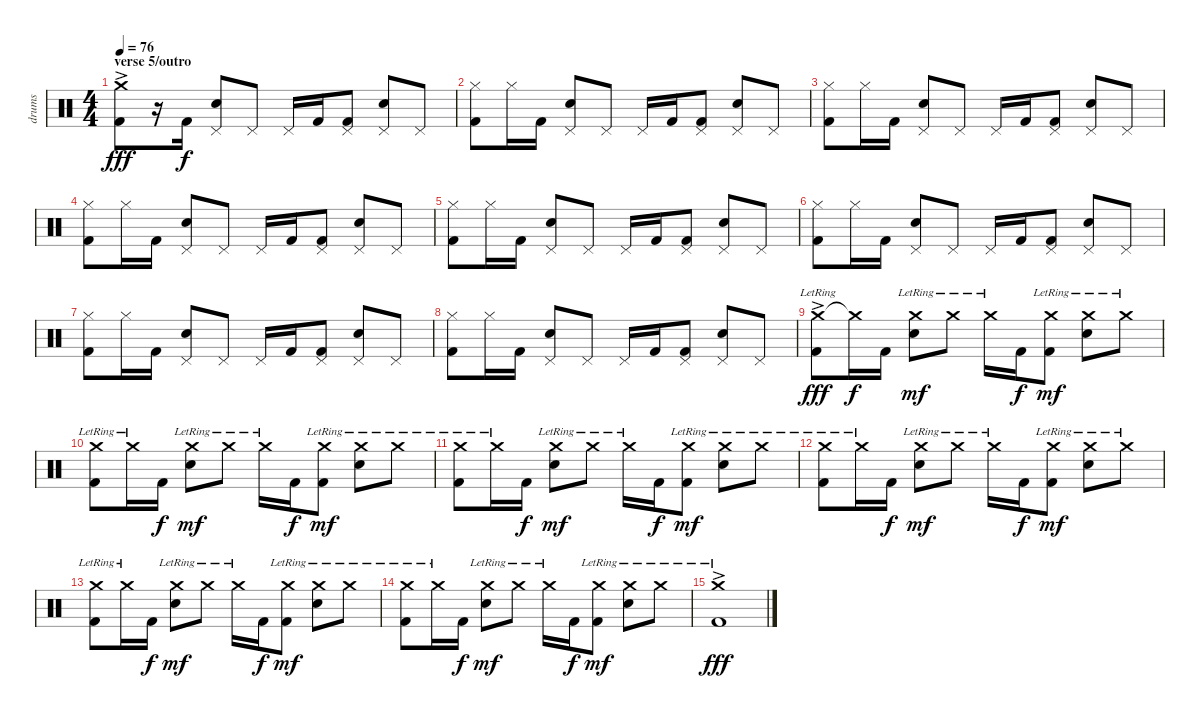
\track ("drums" "drums") {instrument percussion}
\staff {score}
\articulation defaults
\ts (4 4)
\section ("" "verse 5/outro")
\tempo 76
\clef neutral
\ks c
("Crash medium (hit)"{ac} "Kick (hit) 2"{ac}).8{dy fff} r.16 "Kick (hit) 2".16{dy f} ("Pedal Hi-Hat (hit)" "Snare (hit) 2").8 "Pedal Hi-Hat (hit)".8 "Pedal Hi-Hat (hit)".16 "Kick (hit) 2".16 ("Pedal Hi-Hat (hit)" "Kick (hit) 2").8 ("Pedal Hi-Hat (hit)" "Snare (hit) 2").8 "Pedal Hi-Hat (hit)".8 |
("Hi-Hat (closed)" "Kick (hit) 2").8 "Hi-Hat (closed)".16 "Kick (hit) 2".16 ("Pedal Hi-Hat (hit)" "Snare (hit) 2").8 "Pedal Hi-Hat (hit)".8 "Pedal Hi-Hat (hit)".16 "Kick (hit) 2".16 ("Pedal Hi-Hat (hit)" "Kick (hit) 2").8 ("Pedal Hi-Hat (hit)" "Snare (hit) 2").8 "Pedal Hi-Hat (hit)".8 |
("Hi-Hat (closed)" "Kick (hit) 2").8 "Hi-Hat (closed)".16 "Kick (hit) 2".16 ("Pedal Hi-Hat (hit)" "Snare (hit) 2").8 "Pedal Hi-Hat (hit)".8 "Pedal Hi-Hat (hit)".16 "Kick (hit) 2".16 ("Pedal Hi-Hat (hit)" "Kick (hit) 2").8 ("Pedal Hi-Hat (hit)" "Snare (hit) 2").8 "Pedal Hi-Hat (hit)".8 |
("Hi-Hat (closed)" "Kick (hit) 2").8 "Hi-Hat (closed)".16 "Kick (hit) 2".16 ("Pedal Hi-Hat (hit)" "Snare (hit) 2").8 "Pedal Hi-Hat (hit)".8 "Pedal Hi-Hat (hit)".16 "Kick (hit) 2".16 ("Pedal Hi-Hat (hit)" "Kick (hit) 2").8 ("Pedal Hi-Hat (hit)" "Snare (hit) 2").8 "Pedal Hi-Hat (hit)".8 |
("Hi-Hat (closed)" "Kick (hit) 2").8 "Hi-Hat (closed)".16 "Kick (hit) 2".16 ("Pedal Hi-Hat (hit)" "Snare (hit) 2").8 "Pedal Hi-Hat (hit)".8 "Pedal Hi-Hat (hit)".16 "Kick (hit) 2".16 ("Pedal Hi-Hat (hit)" "Kick (hit) 2").8 ("Pedal Hi-Hat (hit)" "Snare (hit) 2").8 "Pedal Hi-Hat (hit)".8 |
("Hi-Hat (closed)" "Kick (hit) 2").8 "Hi-Hat (closed)".16 "Kick (hit) 2".16 ("Pedal Hi-Hat (hit)" "Snare (hit) 2").8 "Pedal Hi-Hat (hit)".8 "Pedal Hi-Hat (hit)".16 "Kick (hit) 2".16 ("Pedal Hi-Hat (hit)" "Kick (hit) 2").8 ("Pedal Hi-Hat (hit)" "Snare (hit) 2").8 "Pedal Hi-Hat (hit)".8 |
("Hi-Hat (closed)" "Kick (hit) 2").8 "Hi-Hat (closed)".16 "Kick (hit) 2".16 ("Pedal Hi-Hat (hit)" "Snare (hit) 2").8 "Pedal Hi-Hat (hit)".8 "Pedal Hi-Hat (hit)".16 "Kick (hit) 2".16 ("Pedal Hi-Hat (hit)" "Kick (hit) 2").8 ("Pedal Hi-Hat (hit)" "Snare (hit) 2").8 "Pedal Hi-Hat (hit)".8 |
("Hi-Hat (closed)" "Kick (hit) 2").8 "Hi-Hat (closed)".16 "Kick (hit) 2".16 ("Pedal Hi-Hat (hit)" "Snare (hit) 2").8 "Pedal Hi-Hat (hit)".8 "Pedal Hi-Hat (hit)".16 "Kick (hit) 2".16 ("Pedal Hi-Hat (hit)" "Kick (hit) 2").8 ("Pedal Hi-Hat (hit)" "Snare (hit) 2").8 "Pedal Hi-Hat (hit)".8 |
("Crash medium (hit)"{ac lr} "Kick (hit) 2"{ac}).8{dy fff} "Crash medium (hit)"{t}.16{dy f} "Kick (hit) 2".16 ("Crash medium (hit)"{lr} "Snare (hit) 2").8{dy mf} "Crash medium (hit)"{lr}.8 "Crash medium (hit)"{lr}.16 "Kick (hit) 2".16{dy f} ("Crash medium (hit)"{lr} "Kick (hit) 2").8{dy mf} ("Crash medium (hit)"{lr} "Snare (hit) 2").8 "Crash medium (hit)"{lr}.8 |
("Crash medium (hit)"{lr} "Kick (hit) 2").8 "Crash medium (hit)"{lr}.16 "Kick (hit) 2".16{dy f} ("Crash medium (hit)"{lr} "Snare (hit) 2").8{dy mf} "Crash medium (hit)"{lr}.8 "Crash medium (hit)"{lr}.16 "Kick (hit) 2".16{dy f} ("Crash medium (hit)"{lr} "Kick (hit) 2").8{dy mf} ("Crash medium (hit)"{lr} "Snare (hit) 2").8 "Crash medium (hit)"{lr}.8 |
("Crash medium (hit)"{lr} "Kick (hit) 2").8 "Crash medium (hit)"{lr}.16 "Kick (hit) 2".16{dy f} ("Crash medium (hit)"{lr} "Snare (hit) 2").8{dy mf} "Crash medium (hit)"{lr}.8 "Crash medium (hit)"{lr}.16 "Kick (hit) 2".16{dy f} ("Crash medium (hit)"{lr} "Kick (hit) 2").8{dy mf} ("Crash medium (hit)"{lr} "Snare (hit) 2").8 "Crash medium (hit)"{lr}.8 |
("Crash medium (hit)"{lr} "Kick (hit) 2").8 "Crash medium (hit)"{lr}.16 "Kick (hit) 2".16{dy f} ("Crash medium (hit)"{lr} "Snare (hit) 2").8{dy mf} "Crash medium (hit)"{lr}.8 "Crash medium (hit)"{lr}.16 "Kick (hit) 2".16{dy f} ("Crash medium (hit)"{lr} "Kick (hit) 2").8{dy mf} ("Crash medium (hit)"{lr} "Snare (hit) 2").8 "Crash medium (hit)"{lr}.8 |
("Crash medium (hit)"{lr} "Kick (hit) 2").8 "Crash medium (hit)"{lr}.16 "Kick (hit) 2".16{dy f} ("Crash medium (hit)"{lr} "Snare (hit) 2").8{dy mf} "Crash medium (hit)"{lr}.8 "Crash medium (hit)"{lr}.16 "Kick (hit) 2".16{dy f} ("Crash medium (hit)"{lr} "Kick (hit) 2").8{dy mf} ("Crash medium (hit)"{lr} "Snare (hit) 2").8 "Crash medium (hit)"{lr}.8 |
("Crash medium (hit)"{lr} "Kick (hit) 2").8 "Crash medium (hit)"{lr}.16 "Kick (hit) 2".16{dy f} ("Crash medium (hit)"{lr} "Snare (hit) 2").8{dy mf} "Crash medium (hit)"{lr}.8 "Crash medium (hit)"{lr}.16 "Kick (hit) 2".16{dy f} ("Crash medium (hit)"{lr} "Kick (hit) 2").8{dy mf} ("Crash medium (hit)"{lr} "Snare (hit) 2").8 "Crash medium (hit)"{lr}.8 |
("Crash medium (hit)"{ac lr} "Kick (hit) 2"{ac}).1{dy fff}
